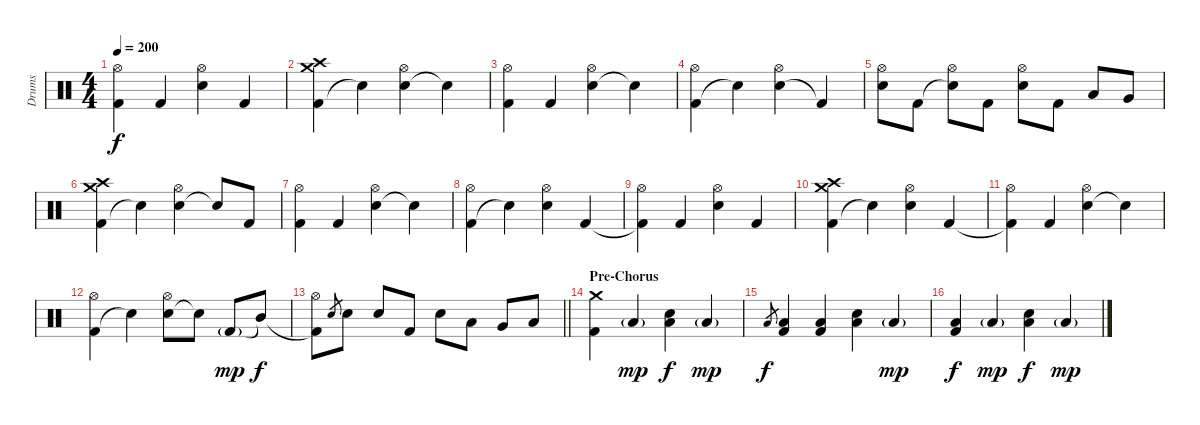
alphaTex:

\track ("Drums" "Drums") {instrument percussion}
\staff {score}
\articulation defaults
\ts (4 4)
\tempo 200
\clef neutral
\ks c
("Kick (hit) 2"{t} "Hi-Hat (open)").4{dy f} "Kick (hit) 2".4 ("Electric Snare (hit)" "Hi-Hat (open)").4 "Kick (hit) 2".4 |
("Kick (hit) 2" "Crash medium (hit)" "Crash high (hit)").4 "Electric Snare (hit)"{t}.4 ("Electric Snare (hit)" "Hi-Hat (open)").4 "Snare (hit)"{t}.4 |
("Kick (hit) 2" "Hi-Hat (open)").4 "Kick (hit) 2".4 ("Electric Snare (hit)" "Hi-Hat (open)").4 "Snare (hit)"{t}.4 |
("Kick (hit) 2" "Hi-Hat (open)").4 "Electric Snare (hit)"{t}.4 ("Electric Snare (hit)" "Hi-Hat (open)").4 "Kick (hit) 2"{t}.4 |
("Electric Snare (hit)" "Hi-Hat (open)").8 "Kick (hit) 2".8 ("Electric Snare (hit)"{t} "Hi-Hat (open)").8 "Kick (hit) 2".8 ("Electric Snare (hit)" "Hi-Hat (open)").8 "Kick (hit) 2".8 "Low Tom (hit)".8 "Very Low Tom (hit)".8 |
("Kick (hit) 2" "Crash medium (hit)" "Crash high (hit)").4 "Electric Snare (hit)"{t}.4 ("Electric Snare (hit)" "Hi-Hat (open)").4 "Snare (hit)"{t}.8 "Kick (hit) 2".8 |
("Kick (hit) 2" "Hi-Hat (open)").4 "Kick (hit) 2".4 ("Electric Snare (hit)" "Hi-Hat (open)").4 "Snare (hit)"{t}.4 |
("Kick (hit) 2" "Hi-Hat (open)").4 "Electric Snare (hit)"{t}.4 ("Electric Snare (hit)" "Hi-Hat (open)").4 "Kick (hit) 2".4 |
("Kick (hit) 2"{t} "Hi-Hat (open)").4 "Kick (hit) 2".4 ("Electric Snare (hit)" "Hi-Hat (open)").4 "Kick (hit) 2".4 |
("Kick (hit) 2" "Crash medium (hit)" "Crash high (hit)").4 "Electric Snare (hit)"{t}.4 ("Electric Snare (hit)" "Hi-Hat (open)").4 "Kick (hit) 2".4 |
("Kick (hit) 2"{t} "Hi-Hat (open)").4 "Kick (hit) 2".4 ("Electric Snare (hit)" "Hi-Hat (open)").4 "Snare (hit)"{t}.4 |
("Kick (hit) 2" "Hi-Hat (open)").4 "Electric Snare (hit)"{t}.4 ("Electric Snare (hit)" "Hi-Hat (open)").8 "Electric Snare (hit)"{t}.8 "Kick (hit) 2"{g}.8{dy mp} "Mid Tom (hit)"{t}.8{dy f} |
\barLineRight lightlight
("Kick (hit) 2"{t} "Hi-Hat (open)").8 "Electric Snare (hit)".8{gr} "Electric Snare (hit)".8 "Electric Snare (hit)".8 "Kick (hit) 2".8 "Electric Snare (hit)".8 "Low Tom (hit)".8 "Very Low Tom (hit)".8 "Low Floor Tom (hit)".8 |
\section ("" "Pre-Chorus")
("Crash medium (hit)" "Kick (hit) 2").4 "Low Floor Tom (hit)"{g}.4{dy mp} ("Low Floor Tom (hit)" "Electric Snare (hit)").4{dy f} "Low Floor Tom (hit)"{g}.4{dy mp} |
"Low Floor Tom (hit)".8{gr dy f} ("Low Floor Tom (hit)" "Kick (hit) 2").4 ("Low Floor Tom (hit)" "Kick (hit) 2").4 ("Low Floor Tom (hit)" "Electric Snare (hit)").4 "Low Floor Tom (hit)"{g}.4{dy mp} |
("Low Floor Tom (hit)" "Kick (hit) 2").4{dy f} "Low Floor Tom (hit)"{g}.4{dy mp} ("Low Floor Tom (hit)" "Electric Snare (hit)").4{dy f} "Low Floor Tom (hit)"{g}.4{dy mp}
